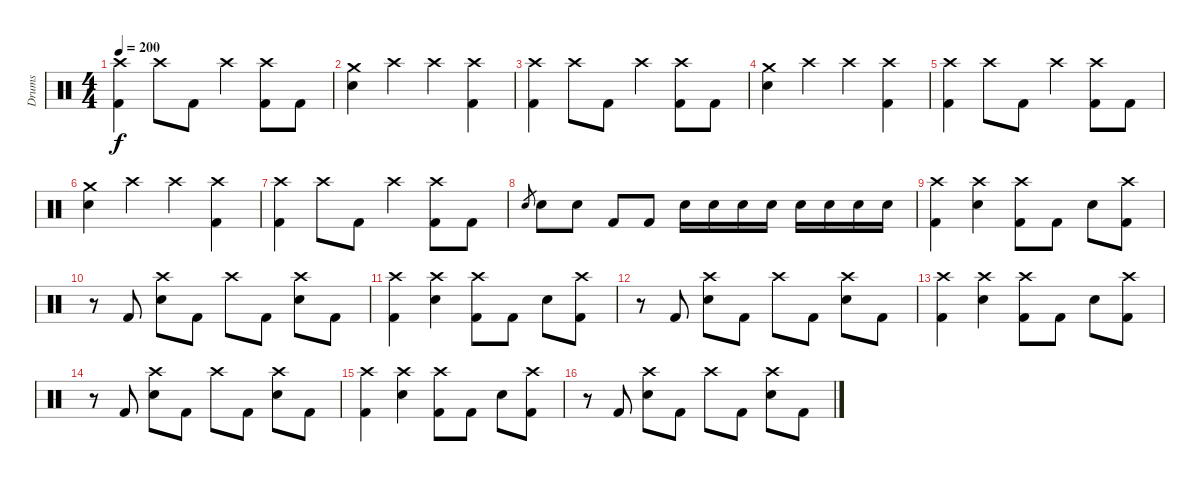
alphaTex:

\track ("Drums" "Drums") {instrument percussion}
\staff {score}
\articulation defaults
\ts (4 4)
\tempo 200
\clef neutral
\ks c
("Crash high (hit)" "Kick (hit) 2").4{dy f} "Crash high (hit)".8 "Kick (hit) 2".8 "Crash high (hit)".4 ("Kick (hit) 2" "Crash high (hit)").8 "Kick (hit) 2".8 |
("Crash medium (hit)" "Electric Snare (hit)").4 "Crash high (hit)".4 "Crash high (hit)".4 ("Crash high (hit)" "Kick (hit) 2").4 |
("Crash high (hit)" "Kick (hit) 2").4 "Crash high (hit)".8 "Kick (hit) 2".8 "Crash high (hit)".4 ("Crash high (hit)" "Kick (hit) 2").8 "Kick (hit) 2".8 |
("Crash medium (hit)" "Electric Snare (hit)").4 "Crash high (hit)".4 "Crash high (hit)".4 ("Crash high (hit)" "Kick (hit) 2").4 |
("Crash high (hit)" "Kick (hit) 2").4 "Crash high (hit)".8 "Kick (hit) 2".8 "Crash high (hit)".4 ("Crash high (hit)" "Kick (hit) 2").8 "Kick (hit) 2".8 |
("Crash medium (hit)" "Electric Snare (hit)").4 "Crash high (hit)".4 "Crash high (hit)".4 ("Crash high (hit)" "Kick (hit) 2").4 |
("Crash high (hit)" "Kick (hit) 2").4 "Crash high (hit)".8 "Kick (hit) 2".8 "Crash high (hit)".4 ("Crash high (hit)" "Kick (hit) 2").8 "Kick (hit) 2".8 |
"Electric Snare (hit)"{sl}.8{gr} "Electric Snare (hit)".8 "Electric Snare (hit)".8 "Kick (hit) 2".8 "Kick (hit) 2".8 "Electric Snare (hit)".16 "Electric Snare (hit)".16 "Electric Snare (hit)".16 "Electric Snare (hit)".16 "Electric Snare (hit)".16 "Electric Snare (hit)".16 "Electric Snare (hit)".16 "Electric Snare (hit)".16 |
("Crash high (hit)" "Kick (hit) 2").4 ("Crash high (hit)" "Electric Snare (hit)").4 ("Crash high (hit)" "Kick (hit) 2").8 "Kick (hit) 2".8 "Electric Snare (hit)".8 ("Crash high (hit)" "Kick (hit) 2").8 |
r.8 "Kick (hit) 2".8 ("Crash high (hit)" "Electric Snare (hit)").8 "Kick (hit) 2".8 "Crash high (hit)".8 "Kick (hit) 2".8 ("Crash high (hit)" "Electric Snare (hit)").8 "Kick (hit) 2".8 |
("Crash high (hit)" "Kick (hit) 2").4 ("Crash high (hit)" "Electric Snare (hit)").4 ("Crash high (hit)" "Kick (hit) 2").8 "Kick (hit) 2".8 "Electric Snare (hit)".8 ("Crash high (hit)" "Kick (hit) 2").8 |
r.8 "Kick (hit) 2".8 ("Crash high (hit)" "Electric Snare (hit)").8 "Kick (hit) 2".8 "Crash high (hit)".8 "Kick (hit) 2".8 ("Crash high (hit)" "Electric Snare (hit)").8 "Kick (hit) 2".8 |
("Crash high (hit)" "Kick (hit) 2").4 ("Crash high (hit)" "Electric Snare (hit)").4 ("Crash high (hit)" "Kick (hit) 2").8 "Kick (hit) 2".8 "Electric Snare (hit)".8 ("Crash high (hit)" "Kick (hit) 2").8 |
r.8 "Kick (hit) 2".8 ("Crash high (hit)" "Electric Snare (hit)").8 "Kick (hit) 2".8 "Crash high (hit)".8 "Kick (hit) 2".8 ("Crash high (hit)" "Electric Snare (hit)").8 "Kick (hit) 2".8 |
("Crash high (hit)" "Kick (hit) 2").4 ("Crash high (hit)" "Electric Snare (hit)").4 ("Crash high (hit)" "Kick (hit) 2").8 "Kick (hit) 2".8 "Electric Snare (hit)".8 ("Crash high (hit)" "Kick (hit) 2").8 |
r.8 "Kick (hit) 2".8 ("Crash high (hit)" "Electric Snare (hit)").8 "Kick (hit) 2".8 "Crash high (hit)".8 "Kick (hit) 2".8 ("Crash high (hit)" "Electric Snare (hit)").8 "Kick (hit) 2".8
